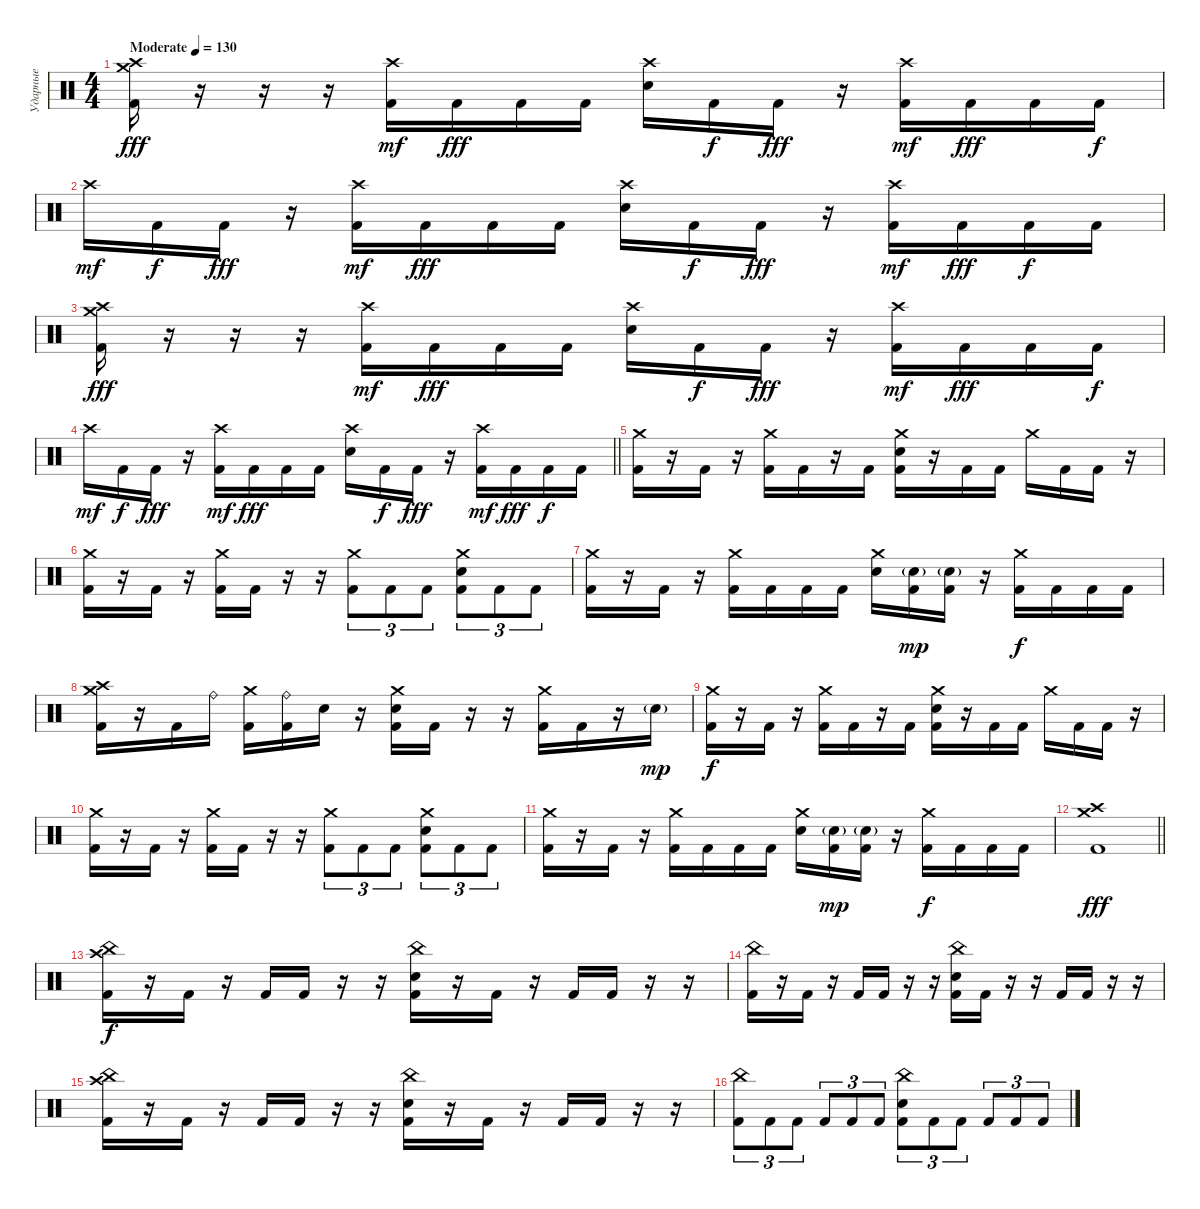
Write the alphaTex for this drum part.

\track ("Ударные" "Ударные") {instrument percussion}
\staff {score}
\articulation defaults
\ts (4 4)
\tempo (130 "Moderate")
\clef neutral
\ks c
("Crash high (hit)" "Crash medium (hit)" "Kick (hit) 2").16{dy fff} r.16 r.16 r.16 ("Crash high (hit)" "Kick (hit) 2").16{dy mf} "Kick (hit) 2".16{dy fff} "Kick (hit) 2".16 "Kick (hit) 2".16 ("Crash high (hit)" "Electric Snare (hit)").16 "Kick (hit) 2".16{dy f} "Kick (hit) 2".16{dy fff} r.16 ("Crash high (hit)" "Kick (hit) 2").16{dy mf} "Kick (hit) 2".16{dy fff} "Kick (hit) 2".16 "Kick (hit) 2".16{dy f} |
"Crash high (hit)".16{dy mf} "Kick (hit) 2".16{dy f} "Kick (hit) 2".16{dy fff} r.16 ("Crash high (hit)" "Kick (hit) 2").16{dy mf} "Kick (hit) 2".16{dy fff} "Kick (hit) 2".16 "Kick (hit) 2".16 ("Crash high (hit)" "Electric Snare (hit)").16 "Kick (hit) 2".16{dy f} "Kick (hit) 2".16{dy fff} r.16 ("Crash high (hit)" "Kick (hit) 2").16{dy mf} "Kick (hit) 2".16{dy fff} "Kick (hit) 2".16{dy f} "Kick (hit) 2".16 |
("Crash high (hit)" "Crash medium (hit)" "Kick (hit) 2").16{dy fff} r.16 r.16 r.16 ("Crash high (hit)" "Kick (hit) 2").16{dy mf} "Kick (hit) 2".16{dy fff} "Kick (hit) 2".16 "Kick (hit) 2".16 ("Crash high (hit)" "Electric Snare (hit)").16 "Kick (hit) 2".16{dy f} "Kick (hit) 2".16{dy fff} r.16 ("Crash high (hit)" "Kick (hit) 2").16{dy mf} "Kick (hit) 2".16{dy fff} "Kick (hit) 2".16 "Kick (hit) 2".16{dy f} |
\barLineRight lightlight "Crash high (hit)".16{dy mf} "Kick (hit) 2".16{dy f} "Kick (hit) 2".16{dy fff}
r.16 ("Crash high (hit)" "Kick (hit) 2").16{dy mf} "Kick (hit) 2".16{dy fff} "Kick (hit) 2".16 "Kick (hit) 2".16 ("Crash high (hit)" "Electric Snare (hit)").16 "Kick (hit) 2".16{dy f} "Kick (hit) 2".16{dy fff} r.16 ("Crash high (hit)" "Kick (hit) 2").16{dy mf} "Kick (hit) 2".16{dy fff} "Kick (hit) 2".16{dy f} "Kick (hit) 2".16 |
("Crash medium (hit)" "Kick (hit) 2").16 r.16 "Kick (hit) 2".16 r.16 ("Crash medium (hit)" "Kick (hit) 2").16 "Kick (hit) 2".16 r.16 "Kick (hit) 2".16 ("Crash medium (hit)" "Electric Snare (hit)" "Kick (hit) 2").16 r.16 "Kick (hit) 2".16 "Kick (hit) 2".16 "Crash medium (hit)".16 "Kick (hit) 2".16 "Kick (hit) 2".16 r.16 |
("Crash medium (hit)" "Kick (hit) 2").16 r.16 "Kick (hit) 2".16 r.16 ("Crash medium (hit)" "Kick (hit) 2").16 "Kick (hit) 2".16 r.16 r.16 ("Crash medium (hit)" "Kick (hit) 2").8{tu (3 2)} "Kick (hit) 2".8{tu (3 2)} "Kick (hit) 2".8{tu (3 2)} ("Crash medium (hit)" "Electric Snare (hit)" "Kick (hit) 2").8{tu (3 2)} "Kick (hit) 2".8{tu (3 2)} "Kick (hit) 2".8{tu (3 2)} |
("Crash medium (hit)" "Kick (hit) 2").16 r.16 "Kick (hit) 2".16 r.16 ("Crash medium (hit)" "Kick (hit) 2").16 "Kick (hit) 2".16 "Kick (hit) 2".16 "Kick (hit) 2".16 ("Crash medium (hit)" "Electric Snare (hit)").16 ("Electric Snare (hit)"{g} "Kick (hit) 2").16{dy mp} ("Electric Snare (hit)"{g} "Kick (hit) 2").16 r.16 ("Crash medium (hit)" "Kick (hit) 2").16{dy f} "Kick (hit) 2".16 "Kick (hit) 2".16 "Kick (hit) 2".16 |
("Crash high (hit)" "Crash medium (hit)" "Kick (hit) 2").16 r.16 "Kick (hit) 2".16 "Ride (bell)".16 ("Crash medium (hit)" "Kick (hit) 2").16 ("Ride (bell)" "Kick (hit) 2").16 "Metronome (bell)".16 r.16 ("Crash medium (hit)" "Electric Snare (hit)" "Kick (hit) 2").16 "Kick (hit) 2".16 r.16 r.16 ("Crash medium (hit)" "Kick (hit) 2").16 "Kick (hit) 2".16 r.16 "Electric Snare (hit)"{g}.16{dy mp} |
("Crash medium (hit)" "Kick (hit) 2").16{dy f} r.16 "Kick (hit) 2".16 r.16 ("Crash medium (hit)" "Kick (hit) 2").16 "Kick (hit) 2".16 r.16 "Kick (hit) 2".16 ("Crash medium (hit)" "Electric Snare (hit)" "Kick (hit) 2").16 r.16 "Kick (hit) 2".16 "Kick (hit) 2".16 "Crash medium (hit)".16 "Kick (hit) 2".16 "Kick (hit) 2".16 r.16 |
("Crash medium (hit)" "Kick (hit) 2").16 r.16 "Kick (hit) 2".16 r.16 ("Crash medium (hit)" "Kick (hit) 2").16 "Kick (hit) 2".16 r.16 r.16 ("Crash medium (hit)" "Kick (hit) 2").8{tu (3 2)} "Kick (hit) 2".8{tu (3 2)} "Kick (hit) 2".8{tu (3 2)} ("Crash medium (hit)" "Electric Snare (hit)" "Kick (hit) 2").8{tu (3 2)} "Kick (hit) 2".8{tu (3 2)} "Kick (hit) 2".8{tu (3 2)} |
("Crash medium (hit)" "Kick (hit) 2").16 r.16 "Kick (hit) 2".16 r.16 ("Crash medium (hit)" "Kick (hit) 2").16 "Kick (hit) 2".16 "Kick (hit) 2".16 "Kick (hit) 2".16 ("Crash medium (hit)" "Electric Snare (hit)").16 ("Electric Snare (hit)"{g} "Kick (hit) 2").16{dy mp} ("Electric Snare (hit)"{g} "Kick (hit) 2").16 r.16 ("Crash medium (hit)" "Kick (hit) 2").16{dy f} "Kick (hit) 2".16 "Kick (hit) 2".16 "Kick (hit) 2".16 |
\barLineRight lightlight
("Crash high (hit)" "Crash medium (hit)" "Kick (hit) 2").1{dy fff} |
("Crash high (hit)" "China (hit)" "Kick (hit) 2").16{dy f} r.16 "Kick (hit) 2".16 r.16 "Kick (hit) 2".16 "Kick (hit) 2".16 r.16 r.16 ("China (hit)" "Electric Snare (hit)" "Kick (hit) 2").16 r.16 "Kick (hit) 2".16 r.16 "Kick (hit) 2".16 "Kick (hit) 2".16 r.16 r.16 |
("China (hit)" "Kick (hit) 2").16 r.16 "Kick (hit) 2".16 r.16 "Kick (hit) 2".16 "Kick (hit) 2".16 r.16 r.16 ("China (hit)" "Electric Snare (hit)" "Kick (hit) 2").16 "Kick (hit) 2".16 r.16 r.16 "Kick (hit) 2".16 "Kick (hit) 2".16 r.16 r.16 |
("Crash high (hit)" "China (hit)" "Kick (hit) 2").16 r.16 "Kick (hit) 2".16 r.16 "Kick (hit) 2".16 "Kick (hit) 2".16 r.16 r.16 ("China (hit)" "Electric Snare (hit)" "Kick (hit) 2").16 r.16 "Kick (hit) 2".16 r.16 "Kick (hit) 2".16 "Kick (hit) 2".16 r.16 r.16 |
("China (hit)" "Kick (hit) 2").8{tu (3 2)} "Kick (hit) 2".8{tu (3 2)} "Kick (hit) 2".8{tu (3 2)} "Kick (hit) 2".8{tu (3 2)} "Kick (hit) 2".8{tu (3 2)} "Kick (hit) 2".8{tu (3 2)} ("China (hit)" "Electric Snare (hit)" "Kick (hit) 2").8{tu (3 2)} "Kick (hit) 2".8{tu (3 2)} "Kick (hit) 2".8{tu (3 2)} "Kick (hit) 2".8{tu (3 2)} "Kick (hit) 2".8{tu (3 2)} "Kick (hit) 2".8{tu (3 2)}
